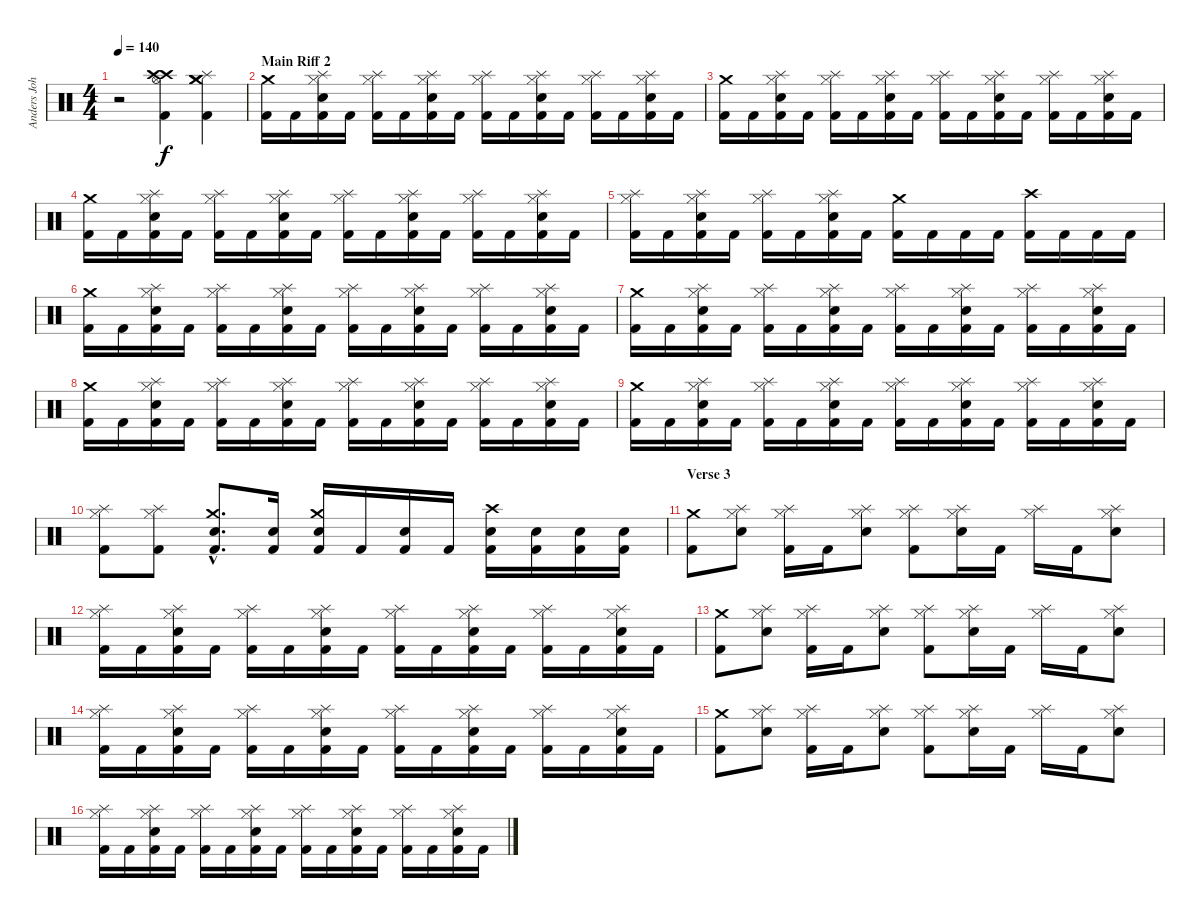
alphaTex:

\track ("Anders Johansson :: Drums" "Anders Joh") {instrument percussion}
\staff {score}
\articulation defaults
\ts (4 4)
\tempo 140
\clef neutral
\ks c
r.2{dy f} ("Crash high (hit)" "Hi-Hat (open)" "Crash high (hit)" "Kick (hit) 2").4 ("Crash medium (hit)" "Splash (hit)" "Crash medium (hit)" "Kick (hit) 2").4 |
\section ("" "Main Riff 2")
("Crash medium (hit)" "Kick (hit) 2").16 "Kick (hit) 2".16 ("Hi-Hat (closed)" "Splash (hit)" "Snare (hit) 2" "Kick (hit) 2").16 "Kick (hit) 2".16 ("Hi-Hat (closed)" "Splash (hit)" "Kick (hit) 2").16 "Kick (hit) 2".16 ("Hi-Hat (closed)" "Splash (hit)" "Snare (hit) 2" "Kick (hit) 2").16 "Kick (hit) 2".16 ("Hi-Hat (closed)" "Splash (hit)" "Kick (hit) 2").16 "Kick (hit) 2".16 ("Hi-Hat (closed)" "Splash (hit)" "Snare (hit) 2" "Kick (hit) 2").16 "Kick (hit) 2".16 ("Hi-Hat (closed)" "Splash (hit)" "Kick (hit) 2").16 "Kick (hit) 2".16 ("Hi-Hat (closed)" "Splash (hit)" "Snare (hit) 2" "Kick (hit) 2").16 "Kick (hit) 2".16 |
("Crash medium (hit)" "Kick (hit) 2").16 "Kick (hit) 2".16 ("Hi-Hat (closed)" "Splash (hit)" "Snare (hit) 2" "Kick (hit) 2").16 "Kick (hit) 2".16 ("Hi-Hat (closed)" "Splash (hit)" "Kick (hit) 2").16 "Kick (hit) 2".16 ("Hi-Hat (closed)" "Splash (hit)" "Snare (hit) 2" "Kick (hit) 2").16 "Kick (hit) 2".16 ("Hi-Hat (closed)" "Splash (hit)" "Kick (hit) 2").16 "Kick (hit) 2".16 ("Hi-Hat (closed)" "Splash (hit)" "Snare (hit) 2" "Kick (hit) 2").16 "Kick (hit) 2".16 ("Hi-Hat (closed)" "Splash (hit)" "Kick (hit) 2").16 "Kick (hit) 2".16 ("Hi-Hat (closed)" "Splash (hit)" "Snare (hit) 2" "Kick (hit) 2").16 "Kick (hit) 2".16 |
("Crash medium (hit)" "Kick (hit) 2").16 "Kick (hit) 2".16 ("Hi-Hat (closed)" "Splash (hit)" "Snare (hit) 2" "Kick (hit) 2").16 "Kick (hit) 2".16 ("Hi-Hat (closed)" "Splash (hit)" "Kick (hit) 2").16 "Kick (hit) 2".16 ("Hi-Hat (closed)" "Splash (hit)" "Snare (hit) 2" "Kick (hit) 2").16 "Kick (hit) 2".16 ("Hi-Hat (closed)" "Splash (hit)" "Kick (hit) 2").16 "Kick (hit) 2".16 ("Hi-Hat (closed)" "Splash (hit)" "Snare (hit) 2" "Kick (hit) 2").16 "Kick (hit) 2".16 ("Hi-Hat (closed)" "Splash (hit)" "Kick (hit) 2").16 "Kick (hit) 2".16 ("Hi-Hat (closed)" "Splash (hit)" "Snare (hit) 2" "Kick (hit) 2").16 "Kick (hit) 2".16 |
("Hi-Hat (closed)" "Splash (hit)" "Kick (hit) 2").16 "Kick (hit) 2".16 ("Hi-Hat (closed)" "Splash (hit)" "Snare (hit) 2" "Kick (hit) 2").16 "Kick (hit) 2".16 ("Hi-Hat (closed)" "Splash (hit)" "Kick (hit) 2").16 "Kick (hit) 2".16 ("Hi-Hat (closed)" "Splash (hit)" "Snare (hit) 2" "Kick (hit) 2").16 "Kick (hit) 2".16 ("Crash medium (hit)" "Kick (hit) 2").16 "Kick (hit) 2".16 "Kick (hit) 2".16 "Kick (hit) 2".16 ("Crash high (hit)" "Kick (hit) 2").16 "Kick (hit) 2".16 "Kick (hit) 2".16 "Kick (hit) 2".16 |
("Crash medium (hit)" "Kick (hit) 2").16 "Kick (hit) 2".16 ("Hi-Hat (closed)" "Splash (hit)" "Snare (hit) 2" "Kick (hit) 2").16 "Kick (hit) 2".16 ("Hi-Hat (closed)" "Splash (hit)" "Kick (hit) 2").16 "Kick (hit) 2".16 ("Hi-Hat (closed)" "Splash (hit)" "Snare (hit) 2" "Kick (hit) 2").16 "Kick (hit) 2".16 ("Hi-Hat (closed)" "Splash (hit)" "Kick (hit) 2").16 "Kick (hit) 2".16 ("Hi-Hat (closed)" "Splash (hit)" "Snare (hit) 2" "Kick (hit) 2").16 "Kick (hit) 2".16 ("Hi-Hat (closed)" "Splash (hit)" "Kick (hit) 2").16 "Kick (hit) 2".16 ("Hi-Hat (closed)" "Splash (hit)" "Snare (hit) 2" "Kick (hit) 2").16 "Kick (hit) 2".16 |
("Crash medium (hit)" "Kick (hit) 2").16 "Kick (hit) 2".16 ("Hi-Hat (closed)" "Splash (hit)" "Snare (hit) 2" "Kick (hit) 2").16 "Kick (hit) 2".16 ("Hi-Hat (closed)" "Splash (hit)" "Kick (hit) 2").16 "Kick (hit) 2".16 ("Hi-Hat (closed)" "Splash (hit)" "Snare (hit) 2" "Kick (hit) 2").16 "Kick (hit) 2".16 ("Hi-Hat (closed)" "Splash (hit)" "Kick (hit) 2").16 "Kick (hit) 2".16 ("Hi-Hat (closed)" "Splash (hit)" "Snare (hit) 2" "Kick (hit) 2").16 "Kick (hit) 2".16 ("Hi-Hat (closed)" "Splash (hit)" "Kick (hit) 2").16 "Kick (hit) 2".16 ("Hi-Hat (closed)" "Splash (hit)" "Snare (hit) 2" "Kick (hit) 2").16 "Kick (hit) 2".16 |
("Crash medium (hit)" "Kick (hit) 2").16 "Kick (hit) 2".16 ("Hi-Hat (closed)" "Splash (hit)" "Snare (hit) 2" "Kick (hit) 2").16 "Kick (hit) 2".16 ("Hi-Hat (closed)" "Splash (hit)" "Kick (hit) 2").16 "Kick (hit) 2".16 ("Hi-Hat (closed)" "Splash (hit)" "Snare (hit) 2" "Kick (hit) 2").16 "Kick (hit) 2".16 ("Hi-Hat (closed)" "Splash (hit)" "Kick (hit) 2").16 "Kick (hit) 2".16 ("Hi-Hat (closed)" "Splash (hit)" "Snare (hit) 2" "Kick (hit) 2").16 "Kick (hit) 2".16 ("Hi-Hat (closed)" "Splash (hit)" "Kick (hit) 2").16 "Kick (hit) 2".16 ("Hi-Hat (closed)" "Splash (hit)" "Snare (hit) 2" "Kick (hit) 2").16 "Kick (hit) 2".16 |
("Crash medium (hit)" "Kick (hit) 2").16 "Kick (hit) 2".16 ("Hi-Hat (closed)" "Splash (hit)" "Snare (hit) 2" "Kick (hit) 2").16 "Kick (hit) 2".16 ("Hi-Hat (closed)" "Splash (hit)" "Kick (hit) 2").16 "Kick (hit) 2".16 ("Hi-Hat (closed)" "Splash (hit)" "Snare (hit) 2" "Kick (hit) 2").16 "Kick (hit) 2".16 ("Hi-Hat (closed)" "Splash (hit)" "Kick (hit) 2").16 "Kick (hit) 2".16 ("Hi-Hat (closed)" "Splash (hit)" "Snare (hit) 2" "Kick (hit) 2").16 "Kick (hit) 2".16 ("Hi-Hat (closed)" "Splash (hit)" "Kick (hit) 2").16 "Kick (hit) 2".16 ("Hi-Hat (closed)" "Splash (hit)" "Snare (hit) 2" "Kick (hit) 2").16 "Kick (hit) 2".16 |
("Hi-Hat (closed)" "Splash (hit)" "Kick (hit) 2").8 ("Hi-Hat (closed)" "Splash (hit)" "Kick (hit) 2").8 ("Crash medium (hit)"{hac} "Snare (hit) 2"{hac} "Kick (hit) 2"{hac}).8{d} ("Snare (hit) 2" "Kick (hit) 2").16 ("Crash medium (hit)" "Snare (hit) 2" "Kick (hit) 2").16 "Kick (hit) 2".16 ("Snare (hit) 2" "Kick (hit) 2").16 "Kick (hit) 2".16 ("Crash high (hit)" "Snare (hit) 2" "Kick (hit) 2").16 ("Snare (hit) 2" "Kick (hit) 2").16 ("Snare (hit) 2" "Kick (hit) 2").16 ("Snare (hit) 2" "Kick (hit) 2").16 |
\section ("" "Verse 3")
("Crash medium (hit)" "Kick (hit) 2").8 ("Hi-Hat (closed)" "Splash (hit)" "Snare (hit) 2").8 ("Hi-Hat (closed)" "Splash (hit)" "Kick (hit) 2").16 "Kick (hit) 2".16 ("Hi-Hat (closed)" "Splash (hit)" "Snare (hit) 2").8 ("Hi-Hat (closed)" "Splash (hit)" "Kick (hit) 2").8 ("Hi-Hat (closed)" "Splash (hit)" "Snare (hit) 2").16 "Kick (hit) 2".16 ("Hi-Hat (closed)" "Splash (hit)").16 "Kick (hit) 2".16 ("Hi-Hat (closed)" "Splash (hit)" "Snare (hit) 2").8 |
("Hi-Hat (closed)" "Splash (hit)" "Kick (hit) 2").16 "Kick (hit) 2".16 ("Hi-Hat (closed)" "Splash (hit)" "Snare (hit) 2" "Kick (hit) 2").16 "Kick (hit) 2".16 ("Hi-Hat (closed)" "Splash (hit)" "Kick (hit) 2").16 "Kick (hit) 2".16 ("Hi-Hat (closed)" "Splash (hit)" "Snare (hit) 2" "Kick (hit) 2").16 "Kick (hit) 2".16 ("Hi-Hat (closed)" "Splash (hit)" "Kick (hit) 2").16 "Kick (hit) 2".16 ("Hi-Hat (closed)" "Splash (hit)" "Snare (hit) 2" "Kick (hit) 2").16 "Kick (hit) 2".16 ("Hi-Hat (closed)" "Splash (hit)" "Kick (hit) 2").16 "Kick (hit) 2".16 ("Hi-Hat (closed)" "Splash (hit)" "Snare (hit) 2" "Kick (hit) 2").16 "Kick (hit) 2".16 |
("Crash medium (hit)" "Kick (hit) 2").8 ("Hi-Hat (closed)" "Splash (hit)" "Snare (hit) 2").8 ("Hi-Hat (closed)" "Splash (hit)" "Kick (hit) 2").16 "Kick (hit) 2".16 ("Hi-Hat (closed)" "Splash (hit)" "Snare (hit) 2").8 ("Hi-Hat (closed)" "Splash (hit)" "Kick (hit) 2").8 ("Hi-Hat (closed)" "Splash (hit)" "Snare (hit) 2").16 "Kick (hit) 2".16 ("Hi-Hat (closed)" "Splash (hit)").16 "Kick (hit) 2".16 ("Hi-Hat (closed)" "Splash (hit)" "Snare (hit) 2").8 |
("Hi-Hat (closed)" "Splash (hit)" "Kick (hit) 2").16 "Kick (hit) 2".16 ("Hi-Hat (closed)" "Splash (hit)" "Snare (hit) 2" "Kick (hit) 2").16 "Kick (hit) 2".16 ("Hi-Hat (closed)" "Splash (hit)" "Kick (hit) 2").16 "Kick (hit) 2".16 ("Hi-Hat (closed)" "Splash (hit)" "Snare (hit) 2" "Kick (hit) 2").16 "Kick (hit) 2".16 ("Hi-Hat (closed)" "Splash (hit)" "Kick (hit) 2").16 "Kick (hit) 2".16 ("Hi-Hat (closed)" "Splash (hit)" "Snare (hit) 2" "Kick (hit) 2").16 "Kick (hit) 2".16 ("Hi-Hat (closed)" "Splash (hit)" "Kick (hit) 2").16 "Kick (hit) 2".16 ("Hi-Hat (closed)" "Splash (hit)" "Snare (hit) 2" "Kick (hit) 2").16 "Kick (hit) 2".16 |
("Crash medium (hit)" "Kick (hit) 2").8 ("Hi-Hat (closed)" "Splash (hit)" "Snare (hit) 2").8 ("Hi-Hat (closed)" "Splash (hit)" "Kick (hit) 2").16 "Kick (hit) 2".16 ("Hi-Hat (closed)" "Splash (hit)" "Snare (hit) 2").8 ("Hi-Hat (closed)" "Splash (hit)" "Kick (hit) 2").8 ("Hi-Hat (closed)" "Splash (hit)" "Snare (hit) 2").16 "Kick (hit) 2".16 ("Hi-Hat (closed)" "Splash (hit)").16 "Kick (hit) 2".16 ("Hi-Hat (closed)" "Splash (hit)" "Snare (hit) 2").8 |
("Hi-Hat (closed)" "Splash (hit)" "Kick (hit) 2").16 "Kick (hit) 2".16 ("Hi-Hat (closed)" "Splash (hit)" "Snare (hit) 2" "Kick (hit) 2").16 "Kick (hit) 2".16 ("Hi-Hat (closed)" "Splash (hit)" "Kick (hit) 2").16 "Kick (hit) 2".16 ("Hi-Hat (closed)" "Splash (hit)" "Snare (hit) 2" "Kick (hit) 2").16 "Kick (hit) 2".16 ("Hi-Hat (closed)" "Splash (hit)" "Kick (hit) 2").16 "Kick (hit) 2".16 ("Hi-Hat (closed)" "Splash (hit)" "Snare (hit) 2" "Kick (hit) 2").16 "Kick (hit) 2".16 ("Hi-Hat (closed)" "Splash (hit)" "Kick (hit) 2").16 "Kick (hit) 2".16 ("Hi-Hat (closed)" "Splash (hit)" "Snare (hit) 2" "Kick (hit) 2").16 "Kick (hit) 2".16
